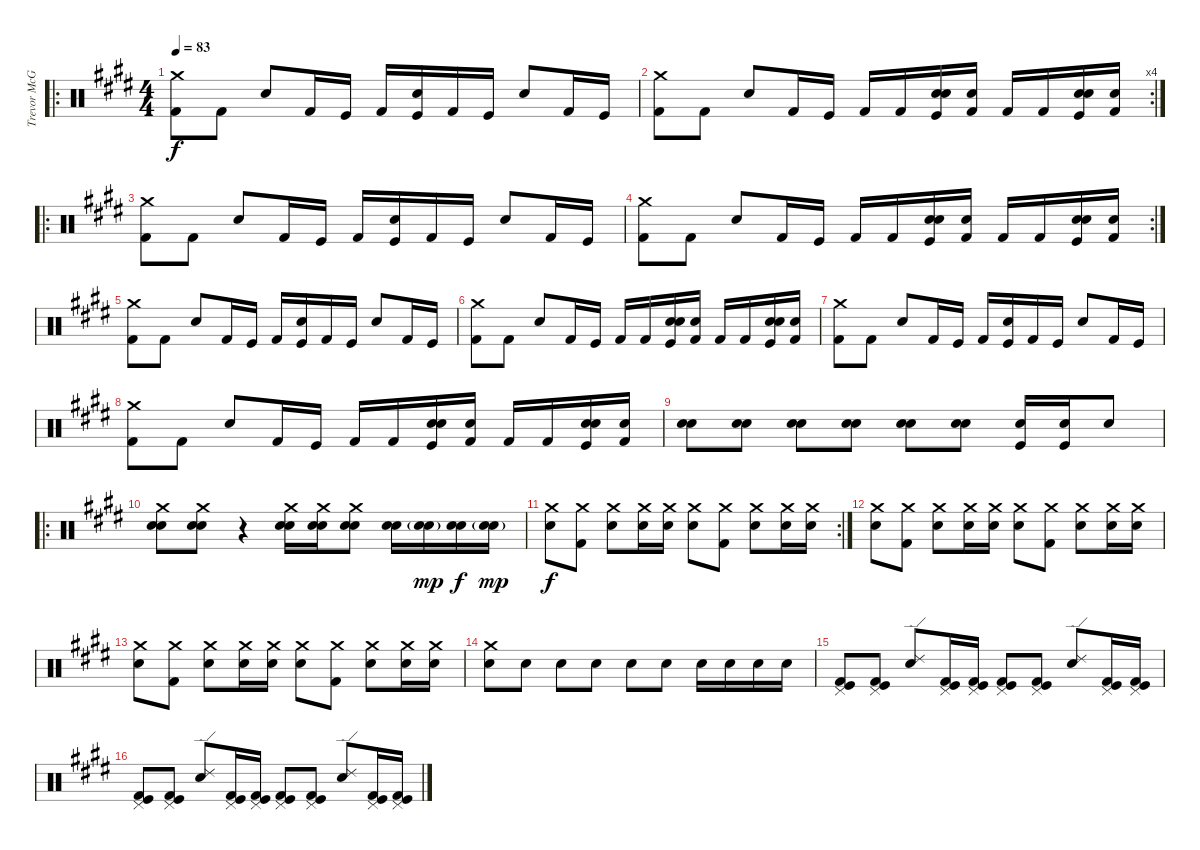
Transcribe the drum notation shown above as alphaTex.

\track ("Trevor McGregor - Drums" "Trevor McG") {instrument percussion}
\staff {score}
\articulation defaults
\ro
\ts (4 4)
\tempo 83
\clef neutral
\ks c#minor
("Crash medium (hit)" "Kick (hit) 2").8{dy f} "Kick (hit) 2".8 "Electric Snare (hit)".8 "Kick (hit) 2".16 "Kick (hit)".16 "Kick (hit) 2".16 ("Electric Snare (hit)" "Kick (hit)").16 "Kick (hit) 2".16 "Kick (hit)".16 "Electric Snare (hit)".8 "Kick (hit) 2".16 "Kick (hit)".16 |
\rc 4
("Crash medium (hit)" "Kick (hit) 2").8 "Kick (hit) 2".8 "Electric Snare (hit)".8 "Kick (hit) 2".16 "Kick (hit)".16 "Kick (hit) 2".16 "Kick (hit) 2".16 ("Snare (hit) 2" "Electric Snare (hit)" "Kick (hit)").16 ("Snare (hit) 2" "Kick (hit) 2").16 "Kick (hit) 2".16 "Kick (hit) 2".16 ("Snare (hit) 2" "Electric Snare (hit)" "Kick (hit)").16 ("Snare (hit) 2" "Kick (hit) 2").16 |
\ro
("Crash medium (hit)" "Kick (hit) 2").8 "Kick (hit) 2".8 "Electric Snare (hit)".8 "Kick (hit) 2".16 "Kick (hit)".16 "Kick (hit) 2".16 ("Electric Snare (hit)" "Kick (hit)").16 "Kick (hit) 2".16 "Kick (hit)".16 "Electric Snare (hit)".8 "Kick (hit) 2".16 "Kick (hit)".16 |
\rc 2
("Crash medium (hit)" "Kick (hit) 2").8 "Kick (hit) 2".8 "Electric Snare (hit)".8 "Kick (hit) 2".16 "Kick (hit)".16 "Kick (hit) 2".16 "Kick (hit) 2".16 ("Snare (hit) 2" "Electric Snare (hit)" "Kick (hit)").16 ("Snare (hit) 2" "Kick (hit) 2").16 "Kick (hit) 2".16 "Kick (hit) 2".16 ("Snare (hit) 2" "Electric Snare (hit)" "Kick (hit)").16 ("Snare (hit) 2" "Kick (hit) 2").16 |
("Crash medium (hit)" "Kick (hit) 2").8 "Kick (hit) 2".8 "Electric Snare (hit)".8 "Kick (hit) 2".16 "Kick (hit)".16 "Kick (hit) 2".16 ("Electric Snare (hit)" "Kick (hit)").16 "Kick (hit) 2".16 "Kick (hit)".16 "Electric Snare (hit)".8 "Kick (hit) 2".16 "Kick (hit)".16 |
("Crash medium (hit)" "Kick (hit) 2").8 "Kick (hit) 2".8 "Electric Snare (hit)".8 "Kick (hit) 2".16 "Kick (hit)".16 "Kick (hit) 2".16 "Kick (hit) 2".16 ("Snare (hit) 2" "Electric Snare (hit)" "Kick (hit)").16 ("Snare (hit) 2" "Kick (hit) 2").16 "Kick (hit) 2".16 "Kick (hit) 2".16 ("Snare (hit) 2" "Electric Snare (hit)" "Kick (hit)").16 ("Snare (hit) 2" "Kick (hit) 2").16 |
("Crash medium (hit)" "Kick (hit) 2").8 "Kick (hit) 2".8 "Electric Snare (hit)".8 "Kick (hit) 2".16 "Kick (hit)".16 "Kick (hit) 2".16 ("Electric Snare (hit)" "Kick (hit)").16 "Kick (hit) 2".16 "Kick (hit)".16 "Electric Snare (hit)".8 "Kick (hit) 2".16 "Kick (hit)".16 |
("Crash medium (hit)" "Kick (hit) 2").8 "Kick (hit) 2".8 "Electric Snare (hit)".8 "Kick (hit) 2".16 "Kick (hit)".16 "Kick (hit) 2".16 "Kick (hit) 2".16 ("Snare (hit) 2" "Electric Snare (hit)" "Kick (hit)").16 ("Snare (hit) 2" "Kick (hit) 2").16 "Kick (hit) 2".16 "Kick (hit) 2".16 ("Snare (hit) 2" "Electric Snare (hit)" "Kick (hit)").16 ("Snare (hit) 2" "Kick (hit) 2").16 |
("Snare (hit) 2" "Electric Snare (hit)").8 ("Snare (hit) 2" "Electric Snare (hit)").8 ("Snare (hit) 2" "Electric Snare (hit)").8 ("Snare (hit) 2" "Electric Snare (hit)").8 ("Snare (hit) 2" "Electric Snare (hit)").8 ("Snare (hit) 2" "Electric Snare (hit)").8 ("Kick (hit)" "Electric Snare (hit)").16 ("Kick (hit)" "Electric Snare (hit)").16 "Snare (hit) 2".8 |
\ro
("Crash medium (hit)" "Electric Snare (hit)" "Snare (hit) 2").8 ("Crash medium (hit)" "Electric Snare (hit)" "Snare (hit) 2").8 r.4 ("Crash medium (hit)" "Electric Snare (hit)" "Snare (hit) 2").16 ("Crash medium (hit)" "Electric Snare (hit)" "Snare (hit) 2").16 ("Crash medium (hit)" "Electric Snare (hit)" "Snare (hit) 2").8 ("Snare (hit) 2" "Electric Snare (hit)").16 ("Snare (hit) 2"{g} "Electric Snare (hit)").16{dy mp} ("Snare (hit) 2" "Electric Snare (hit)").16{dy f} ("Snare (hit) 2"{g} "Electric Snare (hit)").16{dy mp} |
\rc 2
\ks e
("Crash medium (hit)" "Electric Snare (hit)").8{dy f} ("Crash medium (hit)" "Kick (hit) 2").8 ("Crash medium (hit)" "Electric Snare (hit)").8 ("Crash medium (hit)" "Snare (hit) 2").16 ("Crash medium (hit)" "Electric Snare (hit)").16 ("Crash medium (hit)" "Electric Snare (hit)").8 ("Crash medium (hit)" "Kick (hit) 2").8 ("Crash medium (hit)" "Electric Snare (hit)").8 ("Crash medium (hit)" "Snare (hit) 2").16 ("Crash medium (hit)" "Electric Snare (hit)").16 |
("Crash medium (hit)" "Electric Snare (hit)").8 ("Crash medium (hit)" "Kick (hit) 2").8 ("Crash medium (hit)" "Electric Snare (hit)").8 ("Crash medium (hit)" "Snare (hit) 2").16 ("Crash medium (hit)" "Electric Snare (hit)").16 ("Crash medium (hit)" "Electric Snare (hit)").8 ("Crash medium (hit)" "Kick (hit) 2").8 ("Crash medium (hit)" "Electric Snare (hit)").8 ("Crash medium (hit)" "Snare (hit) 2").16 ("Crash medium (hit)" "Electric Snare (hit)").16 |
("Crash medium (hit)" "Electric Snare (hit)").8 ("Crash medium (hit)" "Kick (hit) 2").8 ("Crash medium (hit)" "Electric Snare (hit)").8 ("Crash medium (hit)" "Snare (hit) 2").16 ("Crash medium (hit)" "Electric Snare (hit)").16 ("Crash medium (hit)" "Electric Snare (hit)").8 ("Crash medium (hit)" "Kick (hit) 2").8 ("Crash medium (hit)" "Electric Snare (hit)").8 ("Crash medium (hit)" "Snare (hit) 2").16 ("Crash medium (hit)" "Electric Snare (hit)").16 |
\ks c#minor
("Crash medium (hit)" "Electric Snare (hit)").8 "Electric Snare (hit)".8 "Electric Snare (hit)".8 "Electric Snare (hit)".8 "Electric Snare (hit)".8 "Electric Snare (hit)".8 "Electric Snare (hit)".16 "Electric Snare (hit)".16 "Electric Snare (hit)".16 "Electric Snare (hit)".16 |
\ks e
("Kick (hit) 2" "Pedal Hi-Hat (hit)" "Kick (hit)").8 ("Kick (hit) 2" "Pedal Hi-Hat (hit)" "Kick (hit)").8 ("Ride (edge) 2" "Electric Snare (hit)").8 ("Kick (hit) 2" "Pedal Hi-Hat (hit)" "Kick (hit)").16 ("Kick (hit) 2" "Pedal Hi-Hat (hit)" "Kick (hit)").16 ("Kick (hit) 2" "Pedal Hi-Hat (hit)" "Kick (hit)").8 ("Kick (hit) 2" "Pedal Hi-Hat (hit)" "Kick (hit)").8 ("Ride (edge) 2" "Electric Snare (hit)").8 ("Kick (hit) 2" "Pedal Hi-Hat (hit)" "Kick (hit)").16 ("Kick (hit) 2" "Pedal Hi-Hat (hit)" "Kick (hit)").16 |
("Kick (hit) 2" "Pedal Hi-Hat (hit)" "Kick (hit)").8 ("Kick (hit) 2" "Pedal Hi-Hat (hit)" "Kick (hit)").8 ("Ride (edge) 2" "Electric Snare (hit)").8 ("Kick (hit) 2" "Pedal Hi-Hat (hit)" "Kick (hit)").16 ("Kick (hit) 2" "Pedal Hi-Hat (hit)" "Kick (hit)").16 ("Kick (hit) 2" "Pedal Hi-Hat (hit)" "Kick (hit)").8 ("Kick (hit) 2" "Pedal Hi-Hat (hit)" "Kick (hit)").8 ("Ride (edge) 2" "Electric Snare (hit)").8 ("Kick (hit) 2" "Pedal Hi-Hat (hit)" "Kick (hit)").16 ("Kick (hit) 2" "Pedal Hi-Hat (hit)" "Kick (hit)").16
